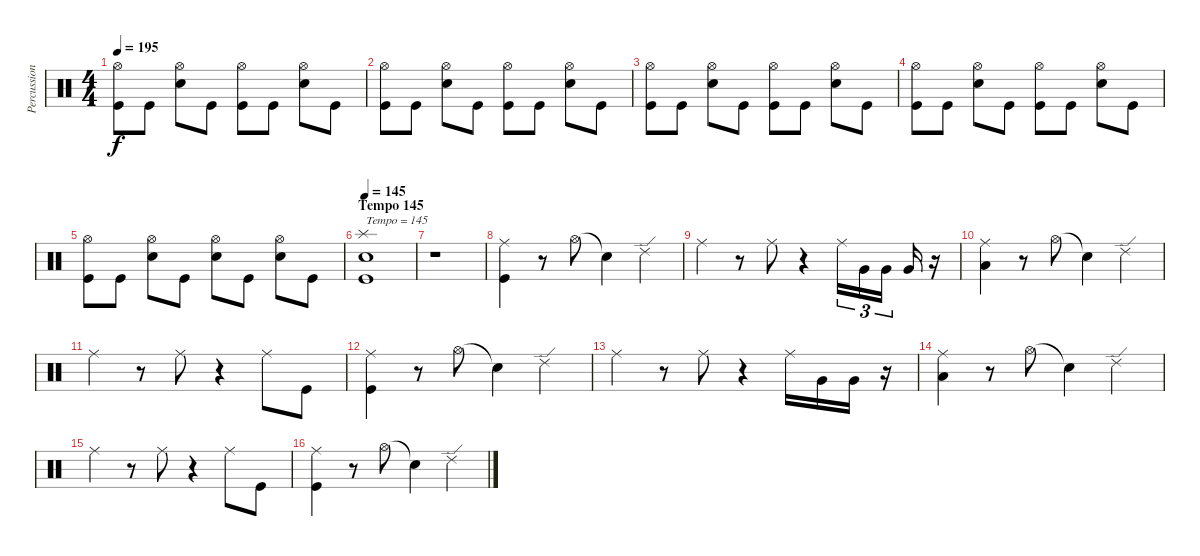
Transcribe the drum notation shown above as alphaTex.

\track ("Percussion" "Percussion") {instrument percussion}
\staff {score}
\articulation defaults
\ts (4 4)
\tempo 195
\clef neutral
\ks c
("Hi-Hat (open)" "Kick (hit)").8{dy f} "Kick (hit)".8 ("Hi-Hat (open)" "Snare (hit) 2").8 "Kick (hit)".8 ("Hi-Hat (open)" "Kick (hit)").8 "Kick (hit)".8 ("Hi-Hat (open)" "Snare (hit) 2").8 "Kick (hit)".8 |
("Hi-Hat (open)" "Kick (hit)").8 "Kick (hit)".8 ("Hi-Hat (open)" "Snare (hit) 2").8 "Kick (hit)".8 ("Hi-Hat (open)" "Kick (hit)").8 "Kick (hit)".8 ("Hi-Hat (open)" "Snare (hit) 2").8 "Kick (hit)".8 |
("Hi-Hat (open)" "Kick (hit)").8 "Kick (hit)".8 ("Hi-Hat (open)" "Snare (hit) 2").8 "Kick (hit)".8 ("Hi-Hat (open)" "Kick (hit)").8 "Kick (hit)".8 ("Hi-Hat (open)" "Snare (hit) 2").8 "Kick (hit)".8 |
("Hi-Hat (open)" "Kick (hit)").8 "Kick (hit)".8 ("Hi-Hat (open)" "Snare (hit) 2").8 "Kick (hit)".8 ("Hi-Hat (open)" "Kick (hit)").8 "Kick (hit)".8 ("Hi-Hat (open)" "Snare (hit) 2").8 "Kick (hit)".8 |
("Hi-Hat (open)" "Kick (hit)").8 "Kick (hit)".8 ("Hi-Hat (open)" "Snare (hit) 2").8 "Kick (hit)".8 ("Hi-Hat (open)" "Snare (hit) 2").8 "Kick (hit)".8 ("Hi-Hat (open)" "Snare (hit) 2").8 "Kick (hit)".8 |
\section ("" "Tempo 145")
\tempo 145
("Splash (hit)" "Snare (hit) 2" "Kick (hit)").1{txt "Tempo = 145"} |
r.1 |
("Ride (middle)" "Kick (hit)").4 r.8 "Hi-Hat (open)".8 "Snare (hit)"{t}.4 "Ride (edge) 2".4 |
"Ride (middle)".4 r.8 "Ride (middle)".8 r.4 "Ride (middle)".16{tu (3 2)} "Very Low Tom (hit)".16{tu (3 2)} "Very Low Tom (hit)".16{tu (3 2)} "Very Low Tom (hit)".16 r.16 |
("Ride (middle)" "Low Floor Tom (hit)").4 r.8 "Hi-Hat (open)".8 "Snare (hit)"{t}.4 "Ride (edge) 2".4 |
"Ride (middle)".4 r.8 "Ride (middle)".8 r.4 "Ride (middle)".8 "Kick (hit)".8 |
("Ride (middle)" "Kick (hit)").4 r.8 "Hi-Hat (open)".8 "Snare (hit)"{t}.4 "Ride (edge) 2".4 |
"Ride (middle)".4 r.8 "Ride (middle)".8 r.4 "Ride (middle)".16 "Very Low Tom (hit)".16 "Very Low Tom (hit)".16 r.16 |
("Ride (middle)" "Low Floor Tom (hit)").4 r.8 "Hi-Hat (open)".8 "Snare (hit)"{t}.4 "Ride (edge) 2".4 |
"Ride (middle)".4 r.8 "Ride (middle)".8 r.4 "Ride (middle)".8 "Kick (hit)".8 |
("Ride (middle)" "Kick (hit)").4 r.8 "Hi-Hat (open)".8 "Snare (hit)"{t}.4 "Ride (edge) 2".4
